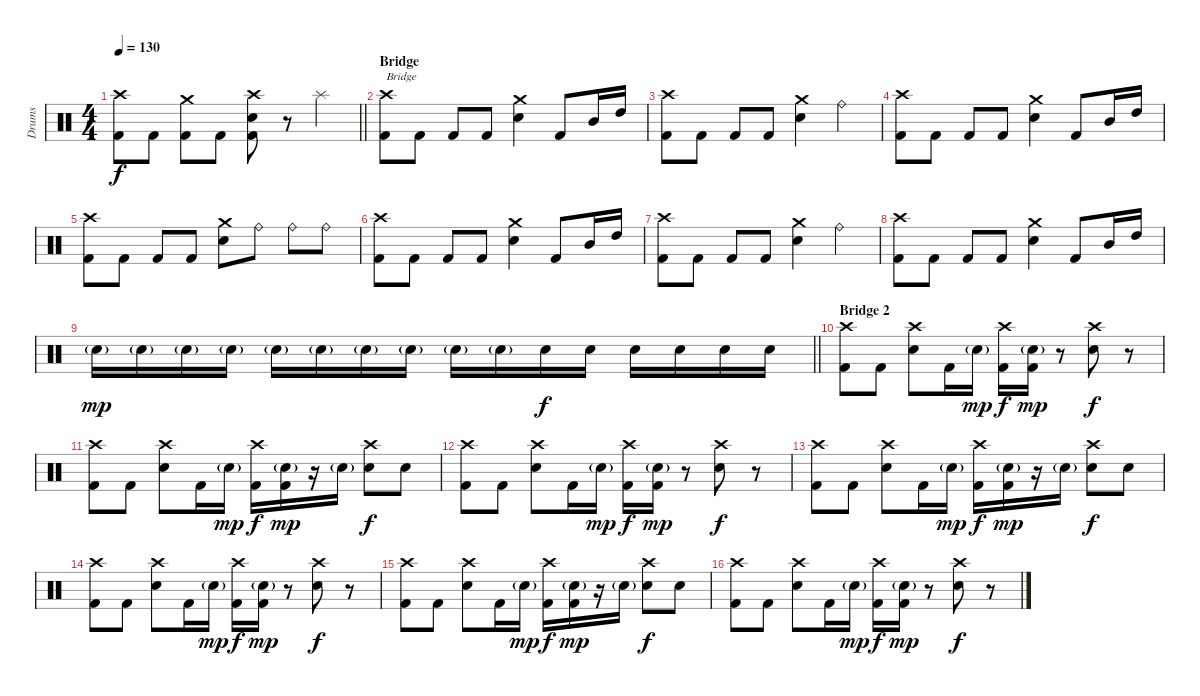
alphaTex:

\track ("Drums" "Drums") {instrument percussion}
\staff {score}
\articulation defaults
\ts (4 4)
\tempo 130
\clef neutral
\barLineRight lightlight
\ks c
("Crash high (hit)" "Kick (hit) 2").8{dy f} "Kick (hit) 2".8 ("Crash medium (hit)" "Kick (hit) 2").8 "Kick (hit) 2".8 ("Crash high (hit)" "Electric Snare (hit)" "Kick (hit) 2").8 r.8 "Splash (hit)".4 |
\section ("" "Bridge")
("Crash high (hit)" "Kick (hit) 2").8{txt "Bridge"} "Kick (hit) 2".8 "Kick (hit) 2".8 "Kick (hit) 2".8 ("Crash medium (hit)" "Electric Snare (hit)").4 "Kick (hit) 2".8 "Mid Tom (hit)".16 "High Tom (hit)".16 |
("Crash high (hit)" "Kick (hit) 2").8 "Kick (hit) 2".8 "Kick (hit) 2".8 "Kick (hit) 2".8 ("Crash medium (hit)" "Electric Snare (hit)").4 "Ride (bell)".4 |
("Crash high (hit)" "Kick (hit) 2").8 "Kick (hit) 2".8 "Kick (hit) 2".8 "Kick (hit) 2".8 ("Crash medium (hit)" "Electric Snare (hit)").4 "Kick (hit) 2".8 "Mid Tom (hit)".16 "High Tom (hit)".16 |
("Crash high (hit)" "Kick (hit) 2").8 "Kick (hit) 2".8 "Kick (hit) 2".8 "Kick (hit) 2".8 ("Crash medium (hit)" "Electric Snare (hit)").8 "Ride (bell)".8 "Ride (bell)".8 "Ride (bell)".8 |
("Crash high (hit)" "Kick (hit) 2").8 "Kick (hit) 2".8 "Kick (hit) 2".8 "Kick (hit) 2".8 ("Crash medium (hit)" "Electric Snare (hit)").4 "Kick (hit) 2".8 "Mid Tom (hit)".16 "High Tom (hit)".16 |
("Crash high (hit)" "Kick (hit) 2").8 "Kick (hit) 2".8 "Kick (hit) 2".8 "Kick (hit) 2".8 ("Crash medium (hit)" "Electric Snare (hit)").4 "Ride (bell)".4 |
("Crash high (hit)" "Kick (hit) 2").8 "Kick (hit) 2".8 "Kick (hit) 2".8 "Kick (hit) 2".8 ("Crash medium (hit)" "Electric Snare (hit)").4 "Kick (hit) 2".8 "Mid Tom (hit)".16 "High Tom (hit)".16 |
\barLineRight lightlight "Electric Snare (hit)"{g}.16{dy mp} "Electric Snare (hit)"{g}.16 "Electric Snare (hit)"{g}.16 "Electric Snare (hit)"{g}.16 "Electric Snare (hit)"{g}.16 "Electric Snare (hit)"{g}.16 "Electric Snare (hit)"{g}.16 "Electric Snare (hit)"{g}.16 "Electric Snare (hit)"{g}.16 "Electric Snare (hit)"{g}.16 "Electric Snare (hit)".16{dy f} "Electric Snare (hit)".16 "Electric Snare (hit)".16 "Electric Snare (hit)".16 "Electric Snare (hit)".16 "Electric Snare (hit)".16
|
\section ("" "Bridge 2")
("Crash high (hit)" "Kick (hit) 2").8 "Kick (hit) 2".8 ("Crash high (hit)" "Electric Snare (hit)").8 "Kick (hit) 2".16 "Electric Snare (hit)"{g}.16{dy mp} ("Crash high (hit)" "Kick (hit) 2").16{dy f} ("Electric Snare (hit)"{g} "Kick (hit) 2").16{dy mp} r.8 ("Crash high (hit)" "Electric Snare (hit)").8{dy f} r.8 |
("Crash high (hit)" "Kick (hit) 2").8 "Kick (hit) 2".8 ("Crash high (hit)" "Electric Snare (hit)").8 "Kick (hit) 2".16 "Electric Snare (hit)"{g}.16{dy mp} ("Crash high (hit)" "Kick (hit) 2").16{dy f} ("Electric Snare (hit)"{g} "Kick (hit) 2").16{dy mp} r.16 "Electric Snare (hit)"{g}.16 ("Crash high (hit)" "Electric Snare (hit)").8{dy f} "Electric Snare (hit)".8 |
("Crash high (hit)" "Kick (hit) 2").8 "Kick (hit) 2".8 ("Crash high (hit)" "Electric Snare (hit)").8 "Kick (hit) 2".16 "Electric Snare (hit)"{g}.16{dy mp} ("Crash high (hit)" "Kick (hit) 2").16{dy f} ("Electric Snare (hit)"{g} "Kick (hit) 2").16{dy mp} r.8 ("Crash high (hit)" "Electric Snare (hit)").8{dy f} r.8 |
("Crash high (hit)" "Kick (hit) 2").8 "Kick (hit) 2".8 ("Crash high (hit)" "Electric Snare (hit)").8 "Kick (hit) 2".16 "Electric Snare (hit)"{g}.16{dy mp} ("Crash high (hit)" "Kick (hit) 2").16{dy f} ("Electric Snare (hit)"{g} "Kick (hit) 2").16{dy mp} r.16 "Electric Snare (hit)"{g}.16 ("Crash high (hit)" "Electric Snare (hit)").8{dy f} "Electric Snare (hit)".8 |
("Crash high (hit)" "Kick (hit) 2").8 "Kick (hit) 2".8 ("Crash high (hit)" "Electric Snare (hit)").8 "Kick (hit) 2".16 "Electric Snare (hit)"{g}.16{dy mp} ("Crash high (hit)" "Kick (hit) 2").16{dy f} ("Electric Snare (hit)"{g} "Kick (hit) 2").16{dy mp} r.8 ("Crash high (hit)" "Electric Snare (hit)").8{dy f} r.8 |
("Crash high (hit)" "Kick (hit) 2").8 "Kick (hit) 2".8 ("Crash high (hit)" "Electric Snare (hit)").8 "Kick (hit) 2".16 "Electric Snare (hit)"{g}.16{dy mp} ("Crash high (hit)" "Kick (hit) 2").16{dy f} ("Electric Snare (hit)"{g} "Kick (hit) 2").16{dy mp} r.16 "Electric Snare (hit)"{g}.16 ("Crash high (hit)" "Electric Snare (hit)").8{dy f} "Electric Snare (hit)".8 |
("Crash high (hit)" "Kick (hit) 2").8 "Kick (hit) 2".8 ("Crash high (hit)" "Electric Snare (hit)").8 "Kick (hit) 2".16 "Electric Snare (hit)"{g}.16{dy mp} ("Crash high (hit)" "Kick (hit) 2").16{dy f} ("Electric Snare (hit)"{g} "Kick (hit) 2").16{dy mp} r.8 ("Crash high (hit)" "Electric Snare (hit)").8{dy f} r.8
